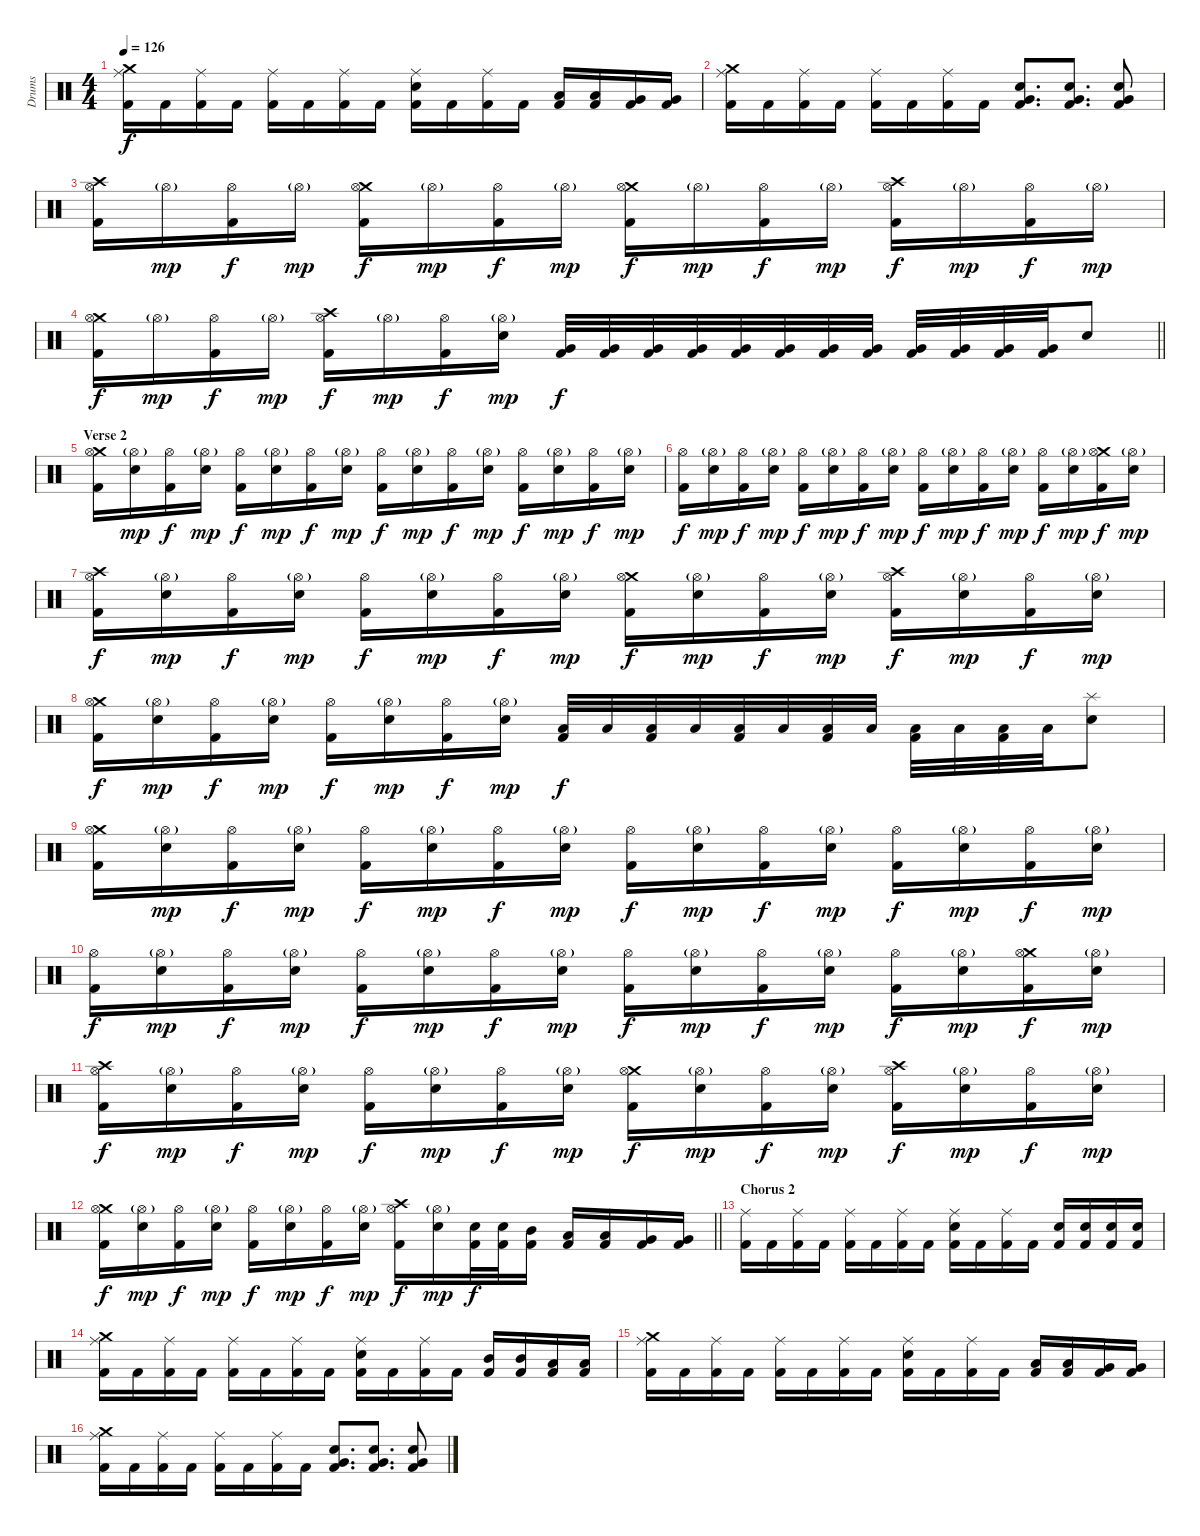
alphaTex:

\track ("Drums" "Drums") {instrument percussion}
\staff {score}
\articulation defaults
\ts (4 4)
\tempo 126
\clef neutral
\ks c
("Crash medium (hit)" "Ride (middle)" "Kick (hit) 2").16{dy f} "Kick (hit) 2".16 ("Ride (middle)" "Kick (hit) 2").16 "Kick (hit) 2".16 ("Ride (middle)" "Kick (hit) 2").16 "Kick (hit) 2".16 ("Ride (middle)" "Kick (hit) 2").16 "Kick (hit) 2".16 ("Ride (middle)" "Electric Snare (hit)" "Kick (hit) 2").16 "Kick (hit) 2".16 ("Ride (middle)" "Kick (hit) 2").16 "Kick (hit) 2".16 ("Low Tom (hit)" "Kick (hit) 2").16 ("Low Tom (hit)" "Kick (hit) 2").16 ("Very Low Tom (hit)" "Kick (hit) 2").16 ("Very Low Tom (hit)" "Kick (hit) 2").16 |
("Crash medium (hit)" "Ride (middle)" "Kick (hit) 2").16 "Kick (hit) 2".16 ("Ride (middle)" "Kick (hit) 2").16 "Kick (hit) 2".16 ("Ride (middle)" "Kick (hit) 2").16 "Kick (hit) 2".16 ("Ride (middle)" "Kick (hit) 2").16 "Kick (hit) 2".16 ("Very Low Tom (hit)" "Electric Snare (hit)" "Kick (hit) 2").8{d} ("Very Low Tom (hit)" "Electric Snare (hit)" "Kick (hit) 2").8{d} ("Very Low Tom (hit)" "Electric Snare (hit)" "Kick (hit) 2").8 |
("Crash high (hit)" "Hi-Hat (open)" "Kick (hit) 2").16 "Hi-Hat (open)"{g}.16{dy mp} ("Hi-Hat (open)" "Kick (hit) 2").16{dy f} "Hi-Hat (open)"{g}.16{dy mp} ("Crash medium (hit)" "Hi-Hat (open)" "Kick (hit) 2").16{dy f} "Hi-Hat (open)"{g}.16{dy mp} ("Hi-Hat (open)" "Kick (hit) 2").16{dy f} "Hi-Hat (open)"{g}.16{dy mp} ("Crash medium (hit)" "Hi-Hat (open)" "Kick (hit) 2").16{dy f} "Hi-Hat (open)"{g}.16{dy mp} ("Hi-Hat (open)" "Kick (hit) 2").16{dy f} "Hi-Hat (open)"{g}.16{dy mp} ("Crash high (hit)" "Hi-Hat (open)" "Kick (hit) 2").16{dy f} "Hi-Hat (open)"{g}.16{dy mp} ("Hi-Hat (open)" "Kick (hit) 2").16{dy f} "Hi-Hat (open)"{g}.16{dy mp} |
\barLineRight lightlight
("Crash medium (hit)" "Hi-Hat (open)" "Kick (hit) 2").16{dy f} "Hi-Hat (open)"{g}.16{dy mp} ("Hi-Hat (open)" "Kick (hit) 2").16{dy f} "Hi-Hat (open)"{g}.16{dy mp} ("Crash high (hit)" "Hi-Hat (open)" "Kick (hit) 2").16{dy f} "Hi-Hat (open)"{g}.16{dy mp} ("Hi-Hat (open)" "Kick (hit) 2").16{dy f} ("Hi-Hat (open)"{g} "Electric Snare (hit)").16{dy mp} ("Very Low Tom (hit)" "Kick (hit) 2").32{dy f} ("Very Low Tom (hit)" "Kick (hit) 2").32 ("Very Low Tom (hit)" "Kick (hit) 2").32 ("Very Low Tom (hit)" "Kick (hit) 2").32 ("Very Low Tom (hit)" "Kick (hit) 2").32 ("Very Low Tom (hit)" "Kick (hit) 2").32 ("Very Low Tom (hit)" "Kick (hit) 2").32 ("Very Low Tom (hit)" "Kick (hit) 2").32 ("Very Low Tom (hit)" "Kick (hit) 2").32 ("Very Low Tom (hit)" "Kick (hit) 2").32 ("Very Low Tom (hit)" "Kick (hit) 2").32 ("Very Low Tom (hit)" "Kick (hit) 2").32 "Electric Snare (hit)".8 |
\section ("" "Verse 2")
("Crash medium (hit)" "Hi-Hat (open)" "Kick (hit) 2").16 ("Hi-Hat (open)"{g} "Electric Snare (hit)").16{dy mp} ("Hi-Hat (open)" "Kick (hit) 2").16{dy f} ("Hi-Hat (open)"{g} "Electric Snare (hit)").16{dy mp} ("Hi-Hat (open)" "Kick (hit) 2").16{dy f} ("Hi-Hat (open)"{g} "Electric Snare (hit)").16{dy mp} ("Hi-Hat (open)" "Kick (hit) 2").16{dy f} ("Hi-Hat (open)"{g} "Electric Snare (hit)").16{dy mp} ("Hi-Hat (open)" "Kick (hit) 2").16{dy f} ("Hi-Hat (open)"{g} "Electric Snare (hit)").16{dy mp} ("Hi-Hat (open)" "Kick (hit) 2").16{dy f} ("Hi-Hat (open)"{g} "Electric Snare (hit)").16{dy mp} ("Hi-Hat (open)" "Kick (hit) 2").16{dy f} ("Hi-Hat (open)"{g} "Electric Snare (hit)").16{dy mp} ("Hi-Hat (open)" "Kick (hit) 2").16{dy f} ("Hi-Hat (open)"{g} "Electric Snare (hit)").16{dy mp} |
("Hi-Hat (open)" "Kick (hit) 2").16{dy f} ("Hi-Hat (open)"{g} "Electric Snare (hit)").16{dy mp} ("Hi-Hat (open)" "Kick (hit) 2").16{dy f} ("Hi-Hat (open)"{g} "Electric Snare (hit)").16{dy mp} ("Hi-Hat (open)" "Kick (hit) 2").16{dy f} ("Hi-Hat (open)"{g} "Electric Snare (hit)").16{dy mp} ("Hi-Hat (open)" "Kick (hit) 2").16{dy f} ("Hi-Hat (open)"{g} "Electric Snare (hit)").16{dy mp} ("Hi-Hat (open)" "Kick (hit) 2").16{dy f} ("Hi-Hat (open)"{g} "Electric Snare (hit)").16{dy mp} ("Hi-Hat (open)" "Kick (hit) 2").16{dy f} ("Hi-Hat (open)"{g} "Electric Snare (hit)").16{dy mp} ("Hi-Hat (open)" "Kick (hit) 2").16{dy f} ("Hi-Hat (open)"{g} "Electric Snare (hit)").16{dy mp} ("Crash medium (hit)" "Hi-Hat (open)" "Kick (hit) 2").16{dy f} ("Hi-Hat (open)"{g} "Electric Snare (hit)").16{dy mp} |
("Crash high (hit)" "Hi-Hat (open)" "Kick (hit) 2").16{dy f} ("Hi-Hat (open)"{g} "Electric Snare (hit)").16{dy mp} ("Hi-Hat (open)" "Kick (hit) 2").16{dy f} ("Hi-Hat (open)"{g} "Electric Snare (hit)").16{dy mp} ("Hi-Hat (open)" "Kick (hit) 2").16{dy f} ("Hi-Hat (open)"{g} "Electric Snare (hit)").16{dy mp} ("Hi-Hat (open)" "Kick (hit) 2").16{dy f} ("Hi-Hat (open)"{g} "Electric Snare (hit)").16{dy mp} ("Crash medium (hit)" "Hi-Hat (open)" "Kick (hit) 2").16{dy f} ("Hi-Hat (open)"{g} "Electric Snare (hit)").16{dy mp} ("Hi-Hat (open)" "Kick (hit) 2").16{dy f} ("Hi-Hat (open)"{g} "Electric Snare (hit)").16{dy mp} ("Crash high (hit)" "Hi-Hat (open)" "Kick (hit) 2").16{dy f} ("Hi-Hat (open)"{g} "Electric Snare (hit)").16{dy mp} ("Hi-Hat (open)" "Kick (hit) 2").16{dy f} ("Hi-Hat (open)"{g} "Electric Snare (hit)").16{dy mp} |
("Crash medium (hit)" "Hi-Hat (open)" "Kick (hit) 2").16{dy f} ("Hi-Hat (open)"{g} "Electric Snare (hit)").16{dy mp} ("Hi-Hat (open)" "Kick (hit) 2").16{dy f} ("Hi-Hat (open)"{g} "Electric Snare (hit)").16{dy mp} ("Hi-Hat (open)" "Kick (hit) 2").16{dy f} ("Hi-Hat (open)"{g} "Electric Snare (hit)").16{dy mp} ("Hi-Hat (open)" "Kick (hit) 2").16{dy f} ("Hi-Hat (open)"{g} "Electric Snare (hit)").16{dy mp} ("Low Tom (hit)" "Kick (hit) 2").32{dy f} "Low Tom (hit)".32 ("Low Tom (hit)" "Kick (hit) 2").32 "Low Tom (hit)".32 ("Low Tom (hit)" "Kick (hit) 2").32 "Low Tom (hit)".32 ("Low Tom (hit)" "Kick (hit) 2").32 "Low Tom (hit)".32 ("Low Tom (hit)" "Kick (hit) 2").32 "Low Tom (hit)".32 ("Low Tom (hit)" "Kick (hit) 2").32 "Low Tom (hit)".32 ("Splash (hit)" "Electric Snare (hit)").8 |
("Crash medium (hit)" "Hi-Hat (open)" "Kick (hit) 2").16 ("Hi-Hat (open)"{g} "Electric Snare (hit)").16{dy mp} ("Hi-Hat (open)" "Kick (hit) 2").16{dy f} ("Hi-Hat (open)"{g} "Electric Snare (hit)").16{dy mp} ("Hi-Hat (open)" "Kick (hit) 2").16{dy f} ("Hi-Hat (open)"{g} "Electric Snare (hit)").16{dy mp} ("Hi-Hat (open)" "Kick (hit) 2").16{dy f} ("Hi-Hat (open)"{g} "Electric Snare (hit)").16{dy mp} ("Hi-Hat (open)" "Kick (hit) 2").16{dy f} ("Hi-Hat (open)"{g} "Electric Snare (hit)").16{dy mp} ("Hi-Hat (open)" "Kick (hit) 2").16{dy f} ("Hi-Hat (open)"{g} "Electric Snare (hit)").16{dy mp} ("Hi-Hat (open)" "Kick (hit) 2").16{dy f} ("Hi-Hat (open)"{g} "Electric Snare (hit)").16{dy mp} ("Hi-Hat (open)" "Kick (hit) 2").16{dy f} ("Hi-Hat (open)"{g} "Electric Snare (hit)").16{dy mp} |
("Hi-Hat (open)" "Kick (hit) 2").16{dy f} ("Hi-Hat (open)"{g} "Electric Snare (hit)").16{dy mp} ("Hi-Hat (open)" "Kick (hit) 2").16{dy f} ("Hi-Hat (open)"{g} "Electric Snare (hit)").16{dy mp} ("Hi-Hat (open)" "Kick (hit) 2").16{dy f} ("Hi-Hat (open)"{g} "Electric Snare (hit)").16{dy mp} ("Hi-Hat (open)" "Kick (hit) 2").16{dy f} ("Hi-Hat (open)"{g} "Electric Snare (hit)").16{dy mp} ("Hi-Hat (open)" "Kick (hit) 2").16{dy f} ("Hi-Hat (open)"{g} "Electric Snare (hit)").16{dy mp} ("Hi-Hat (open)" "Kick (hit) 2").16{dy f} ("Hi-Hat (open)"{g} "Electric Snare (hit)").16{dy mp} ("Hi-Hat (open)" "Kick (hit) 2").16{dy f} ("Hi-Hat (open)"{g} "Electric Snare (hit)").16{dy mp} ("Crash medium (hit)" "Hi-Hat (open)" "Kick (hit) 2").16{dy f} ("Hi-Hat (open)"{g} "Electric Snare (hit)").16{dy mp} |
("Crash high (hit)" "Hi-Hat (open)" "Kick (hit) 2").16{dy f} ("Hi-Hat (open)"{g} "Electric Snare (hit)").16{dy mp} ("Hi-Hat (open)" "Kick (hit) 2").16{dy f} ("Hi-Hat (open)"{g} "Electric Snare (hit)").16{dy mp} ("Hi-Hat (open)" "Kick (hit) 2").16{dy f} ("Hi-Hat (open)"{g} "Electric Snare (hit)").16{dy mp} ("Hi-Hat (open)" "Kick (hit) 2").16{dy f} ("Hi-Hat (open)"{g} "Electric Snare (hit)").16{dy mp} ("Crash medium (hit)" "Hi-Hat (open)" "Kick (hit) 2").16{dy f} ("Hi-Hat (open)"{g} "Electric Snare (hit)").16{dy mp} ("Hi-Hat (open)" "Kick (hit) 2").16{dy f} ("Hi-Hat (open)"{g} "Electric Snare (hit)").16{dy mp} ("Crash high (hit)" "Hi-Hat (open)" "Kick (hit) 2").16{dy f} ("Hi-Hat (open)"{g} "Electric Snare (hit)").16{dy mp} ("Hi-Hat (open)" "Kick (hit) 2").16{dy f} ("Hi-Hat (open)"{g} "Electric Snare (hit)").16{dy mp} |
\barLineRight lightlight
("Crash medium (hit)" "Hi-Hat (open)" "Kick (hit) 2").16{dy f} ("Hi-Hat (open)"{g} "Electric Snare (hit)").16{dy mp} ("Hi-Hat (open)" "Kick (hit) 2").16{dy f} ("Hi-Hat (open)"{g} "Electric Snare (hit)").16{dy mp} ("Hi-Hat (open)" "Kick (hit) 2").16{dy f} ("Hi-Hat (open)"{g} "Electric Snare (hit)").16{dy mp} ("Hi-Hat (open)" "Kick (hit) 2").16{dy f} ("Hi-Hat (open)"{g} "Electric Snare (hit)").16{dy mp} ("Crash high (hit)" "Hi-Hat (open)" "Kick (hit) 2").16{dy f} ("Hi-Hat (open)"{g} "Electric Snare (hit)").16{dy mp} ("Electric Snare (hit)" "Kick (hit) 2").32{dy f} ("Electric Snare (hit)" "Kick (hit) 2").32 ("Mid Tom (hit)" "Kick (hit) 2").16 ("Low Tom (hit)" "Kick (hit) 2").16 ("Low Tom (hit)" "Kick (hit) 2").16 ("Very Low Tom (hit)" "Kick (hit) 2").16 ("Very Low Tom (hit)" "Kick (hit) 2").16 |
\section ("" "Chorus 2")
("Ride (middle)" "Kick (hit) 2").16 "Kick (hit) 2".16 ("Ride (middle)" "Kick (hit) 2").16 "Kick (hit) 2".16 ("Ride (middle)" "Kick (hit) 2").16 "Kick (hit) 2".16 ("Ride (middle)" "Kick (hit) 2").16 "Kick (hit) 2".16 ("Ride (middle)" "Electric Snare (hit)" "Kick (hit) 2").16 "Kick (hit) 2".16 ("Ride (middle)" "Kick (hit) 2").16 "Kick (hit) 2".16 ("Electric Snare (hit)" "Kick (hit) 2").16 ("Electric Snare (hit)" "Kick (hit) 2").16 ("Electric Snare (hit)" "Kick (hit) 2").16 ("Electric Snare (hit)" "Kick (hit) 2").16 |
("Crash medium (hit)" "Ride (middle)" "Kick (hit) 2").16 "Kick (hit) 2".16 ("Ride (middle)" "Kick (hit) 2").16 "Kick (hit) 2".16 ("Ride (middle)" "Kick (hit) 2").16 "Kick (hit) 2".16 ("Ride (middle)" "Kick (hit) 2").16 "Kick (hit) 2".16 ("Ride (middle)" "Electric Snare (hit)" "Kick (hit) 2").16 "Kick (hit) 2".16 ("Ride (middle)" "Kick (hit) 2").16 "Kick (hit) 2".16 ("Mid Tom (hit)" "Kick (hit) 2").16 ("Mid Tom (hit)" "Kick (hit) 2").16 ("Low Tom (hit)" "Kick (hit) 2").16 ("Low Tom (hit)" "Kick (hit) 2").16 |
("Crash medium (hit)" "Ride (middle)" "Kick (hit) 2").16 "Kick (hit) 2".16 ("Ride (middle)" "Kick (hit) 2").16 "Kick (hit) 2".16 ("Ride (middle)" "Kick (hit) 2").16 "Kick (hit) 2".16 ("Ride (middle)" "Kick (hit) 2").16 "Kick (hit) 2".16 ("Ride (middle)" "Electric Snare (hit)" "Kick (hit) 2").16 "Kick (hit) 2".16 ("Ride (middle)" "Kick (hit) 2").16 "Kick (hit) 2".16 ("Low Tom (hit)" "Kick (hit) 2").16 ("Low Tom (hit)" "Kick (hit) 2").16 ("Very Low Tom (hit)" "Kick (hit) 2").16 ("Very Low Tom (hit)" "Kick (hit) 2").16 |
("Crash medium (hit)" "Ride (middle)" "Kick (hit) 2").16 "Kick (hit) 2".16 ("Ride (middle)" "Kick (hit) 2").16 "Kick (hit) 2".16 ("Ride (middle)" "Kick (hit) 2").16 "Kick (hit) 2".16 ("Ride (middle)" "Kick (hit) 2").16 "Kick (hit) 2".16 ("Very Low Tom (hit)" "Electric Snare (hit)" "Kick (hit) 2").8{d} ("Very Low Tom (hit)" "Electric Snare (hit)" "Kick (hit) 2").8{d} ("Very Low Tom (hit)" "Electric Snare (hit)" "Kick (hit) 2").8
